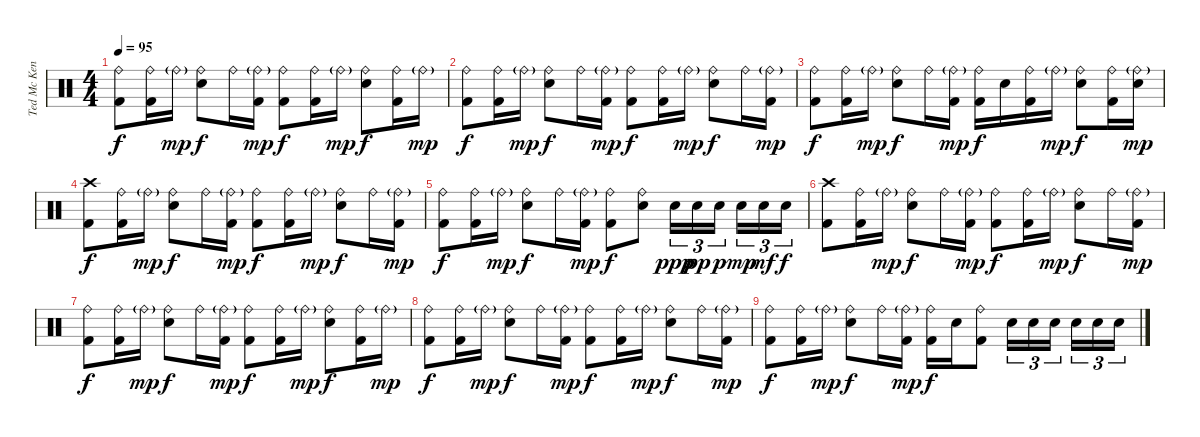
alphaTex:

\track ("Ted Mc Kenna" "Ted Mc Ken") {instrument percussion}
\staff {score}
\articulation defaults
\ts (4 4)
\tempo 95
\clef neutral
\ks c
("Ride (bell)" "Kick (hit) 2").8{dy f} ("Ride (bell)" "Kick (hit) 2").16 "Ride (bell)"{g}.16{dy mp} ("Ride (bell)" "Snare (hit) 2").8{dy f} "Ride (bell)".16 ("Ride (bell)"{g} "Kick (hit) 2").16{dy mp} ("Ride (bell)" "Kick (hit) 2").8{dy f} ("Ride (bell)" "Kick (hit) 2").16 "Ride (bell)"{g}.16{dy mp} ("Ride (bell)" "Snare (hit) 2").8{dy f} ("Ride (bell)" "Kick (hit) 2").16 "Ride (bell)"{g}.16{dy mp} |
("Ride (bell)" "Kick (hit) 2").8{dy f} ("Ride (bell)" "Kick (hit) 2").16 "Ride (bell)"{g}.16{dy mp} ("Ride (bell)" "Snare (hit) 2").8{dy f} "Ride (bell)".16 ("Ride (bell)"{g} "Kick (hit) 2").16{dy mp} ("Ride (bell)" "Kick (hit) 2").8{dy f} ("Ride (bell)" "Kick (hit) 2").16 "Ride (bell)"{g}.16{dy mp} ("Ride (bell)" "Snare (hit) 2").8{dy f} "Ride (bell)".16 ("Ride (bell)"{g} "Kick (hit) 2").16{dy mp} |
("Ride (bell)" "Kick (hit) 2").8{dy f} ("Ride (bell)" "Kick (hit) 2").16 "Ride (bell)"{g}.16{dy mp} ("Ride (bell)" "Snare (hit) 2").8{dy f} "Ride (bell)".16 ("Ride (bell)"{g} "Kick (hit) 2").16{dy mp} ("Ride (bell)" "Kick (hit) 2").16{dy f} "Snare (hit) 2".16 ("Ride (bell)" "Kick (hit) 2").16 "Ride (bell)"{g}.16{dy mp} ("Ride (bell)" "Snare (hit) 2").8{dy f} ("Ride (bell)" "Kick (hit) 2").16 ("Ride (bell)"{g} "Snare (hit) 2").16{dy mp} |
("Crash high (hit)" "Kick (hit) 2").8{dy f} ("Ride (bell)" "Kick (hit) 2").16 "Ride (bell)"{g}.16{dy mp} ("Ride (bell)" "Snare (hit) 2").8{dy f} "Ride (bell)".16 ("Ride (bell)"{g} "Kick (hit) 2").16{dy mp} ("Ride (bell)" "Kick (hit) 2").8{dy f} ("Ride (bell)" "Kick (hit) 2").16 "Ride (bell)"{g}.16{dy mp} ("Ride (bell)" "Snare (hit) 2").8{dy f} "Ride (bell)".16 ("Ride (bell)"{g} "Kick (hit) 2").16{dy mp} |
("Ride (bell)" "Kick (hit) 2").8{dy f} ("Ride (bell)" "Kick (hit) 2").16 "Ride (bell)"{g}.16{dy mp} ("Ride (bell)" "Snare (hit) 2").8{dy f} "Ride (bell)".16 ("Ride (bell)"{g} "Kick (hit) 2").16{dy mp} ("Ride (bell)" "Kick (hit) 2").8{dy f} ("Ride (bell)" "Snare (hit) 2").8 "Snare (hit) 2".16{tu (3 2) dy ppp} "Snare (hit) 2".16{tu (3 2) dy pp} "Snare (hit) 2".16{tu (3 2) dy p} "Snare (hit) 2".16{tu (3 2) dy mp} "Snare (hit) 2".16{tu (3 2) dy mf} "Snare (hit) 2".16{tu (3 2) dy f} |
("Crash high (hit)" "Kick (hit) 2").8 ("Ride (bell)" "Kick (hit) 2").16 "Ride (bell)"{g}.16{dy mp} ("Ride (bell)" "Snare (hit) 2").8{dy f} "Ride (bell)".16 ("Ride (bell)"{g} "Kick (hit) 2").16{dy mp} ("Ride (bell)" "Kick (hit) 2").8{dy f} ("Ride (bell)" "Kick (hit) 2").16 "Ride (bell)"{g}.16{dy mp} ("Ride (bell)" "Snare (hit) 2").8{dy f} "Ride (bell)".16 ("Ride (bell)"{g} "Kick (hit) 2").16{dy mp} |
("Ride (bell)" "Kick (hit) 2").8{dy f} ("Ride (bell)" "Kick (hit) 2").16 "Ride (bell)"{g}.16{dy mp} ("Ride (bell)" "Snare (hit) 2").8{dy f} "Ride (bell)".16 ("Ride (bell)"{g} "Kick (hit) 2").16{dy mp} ("Ride (bell)" "Kick (hit) 2").8{dy f} ("Ride (bell)" "Kick (hit) 2").16 "Ride (bell)"{g}.16{dy mp} ("Ride (bell)" "Snare (hit) 2").8{dy f} ("Ride (bell)" "Kick (hit) 2").16 "Ride (bell)"{g}.16{dy mp} |
("Ride (bell)" "Kick (hit) 2").8{dy f} ("Ride (bell)" "Kick (hit) 2").16 "Ride (bell)"{g}.16{dy mp} ("Ride (bell)" "Snare (hit) 2").8{dy f} "Ride (bell)".16 ("Ride (bell)"{g} "Kick (hit) 2").16{dy mp} ("Ride (bell)" "Kick (hit) 2").8{dy f} ("Ride (bell)" "Kick (hit) 2").16 "Ride (bell)"{g}.16{dy mp} ("Ride (bell)" "Snare (hit) 2").8{dy f} "Ride (bell)".16 ("Ride (bell)"{g} "Kick (hit) 2").16{dy mp} |
("Ride (bell)" "Kick (hit) 2").8{dy f} ("Ride (bell)" "Kick (hit) 2").16 "Ride (bell)"{g}.16{dy mp} ("Ride (bell)" "Snare (hit) 2").8{dy f} "Ride (bell)".16 ("Ride (bell)"{g} "Kick (hit) 2").16{dy mp} ("Ride (bell)" "Kick (hit) 2").16{dy f} "Snare (hit) 2".16 ("Ride (bell)" "Kick (hit) 2").8 "Snare (hit) 2".16{tu (3 2)} "Snare (hit) 2".16{tu (3 2)} "Snare (hit) 2".16{tu (3 2)} "Snare (hit) 2".16{tu (3 2)} "Snare (hit) 2".16{tu (3 2)} "Snare (hit) 2".16{tu (3 2)}
